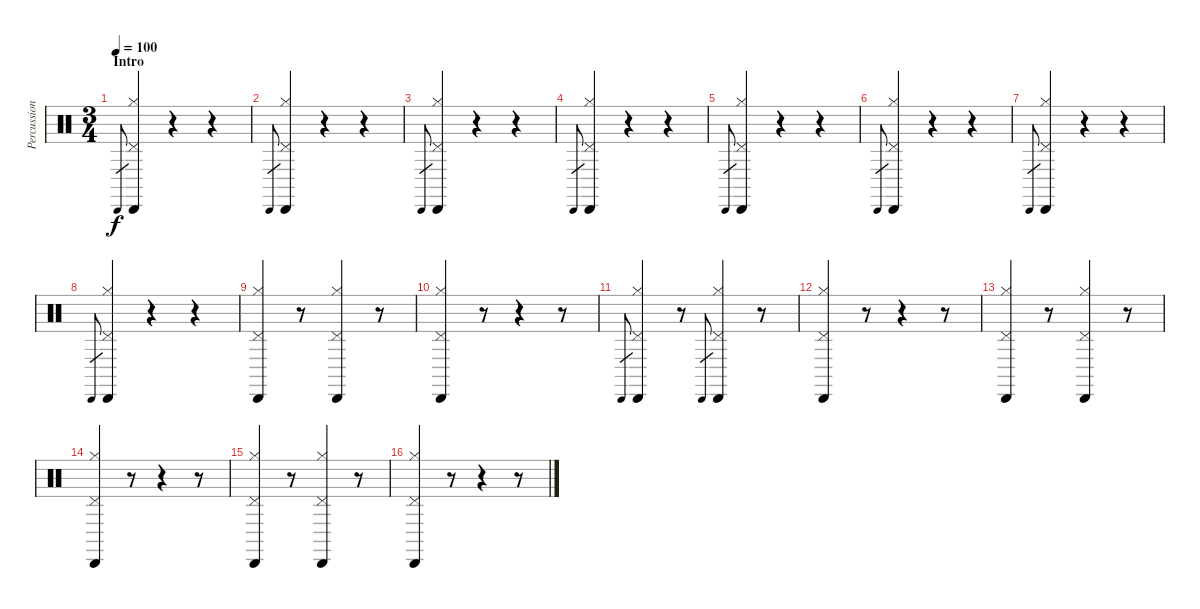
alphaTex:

\track ("Percussion" "Percussion") {instrument percussion}
\staff {score}
\articulation defaults
\ts (3 4)
\section ("" "Intro")
\tempo 100
\clef neutral
\ks c "Cabasa (hit)".8{gr dy f}
("Pedal Hi-Hat (hit)" "Cabasa (hit)" "Hi-Hat (closed)").4 r.4 r.4 |
"Cabasa (hit)".8{gr} ("Pedal Hi-Hat (hit)" "Cabasa (hit)" "Hi-Hat (closed)").4 r.4 r.4 |
"Cabasa (hit)".8{gr} ("Pedal Hi-Hat (hit)" "Cabasa (hit)" "Hi-Hat (closed)").4 r.4 r.4 |
"Cabasa (hit)".8{gr} ("Pedal Hi-Hat (hit)" "Cabasa (hit)" "Hi-Hat (closed)").4 r.4 r.4 |
"Cabasa (hit)".8{gr} ("Pedal Hi-Hat (hit)" "Cabasa (hit)" "Hi-Hat (closed)").4 r.4 r.4 |
"Cabasa (hit)".8{gr} ("Pedal Hi-Hat (hit)" "Cabasa (hit)" "Hi-Hat (closed)").4 r.4 r.4 |
"Cabasa (hit)".8{gr} ("Pedal Hi-Hat (hit)" "Cabasa (hit)" "Hi-Hat (closed)").4 r.4 r.4 |
"Cabasa (hit)".8{gr} ("Pedal Hi-Hat (hit)" "Cabasa (hit)" "Hi-Hat (closed)").4 r.4 r.4 |
("Pedal Hi-Hat (hit)" "Cabasa (hit)" "Hi-Hat (closed)").4 r.8 ("Pedal Hi-Hat (hit)" "Cabasa (hit)" "Hi-Hat (closed)").4 r.8 |
("Pedal Hi-Hat (hit)" "Cabasa (hit)" "Hi-Hat (closed)").4 r.8 r.4 r.8 |
"Cabasa (hit)".8{gr} ("Pedal Hi-Hat (hit)" "Cabasa (hit)" "Hi-Hat (closed)").4 r.8 "Cabasa (hit)".8{gr} ("Pedal Hi-Hat (hit)" "Cabasa (hit)" "Hi-Hat (closed)").4 r.8 |
("Pedal Hi-Hat (hit)" "Cabasa (hit)" "Hi-Hat (closed)").4 r.8 r.4 r.8 |
("Pedal Hi-Hat (hit)" "Cabasa (hit)" "Hi-Hat (closed)").4 r.8 ("Pedal Hi-Hat (hit)" "Cabasa (hit)" "Hi-Hat (closed)").4 r.8 |
("Pedal Hi-Hat (hit)" "Cabasa (hit)" "Hi-Hat (closed)").4 r.8 r.4 r.8 |
("Pedal Hi-Hat (hit)" "Cabasa (hit)" "Hi-Hat (closed)").4 r.8 ("Pedal Hi-Hat (hit)" "Cabasa (hit)" "Hi-Hat (closed)").4 r.8 |
("Pedal Hi-Hat (hit)" "Cabasa (hit)" "Hi-Hat (closed)").4 r.8 r.4 r.8
